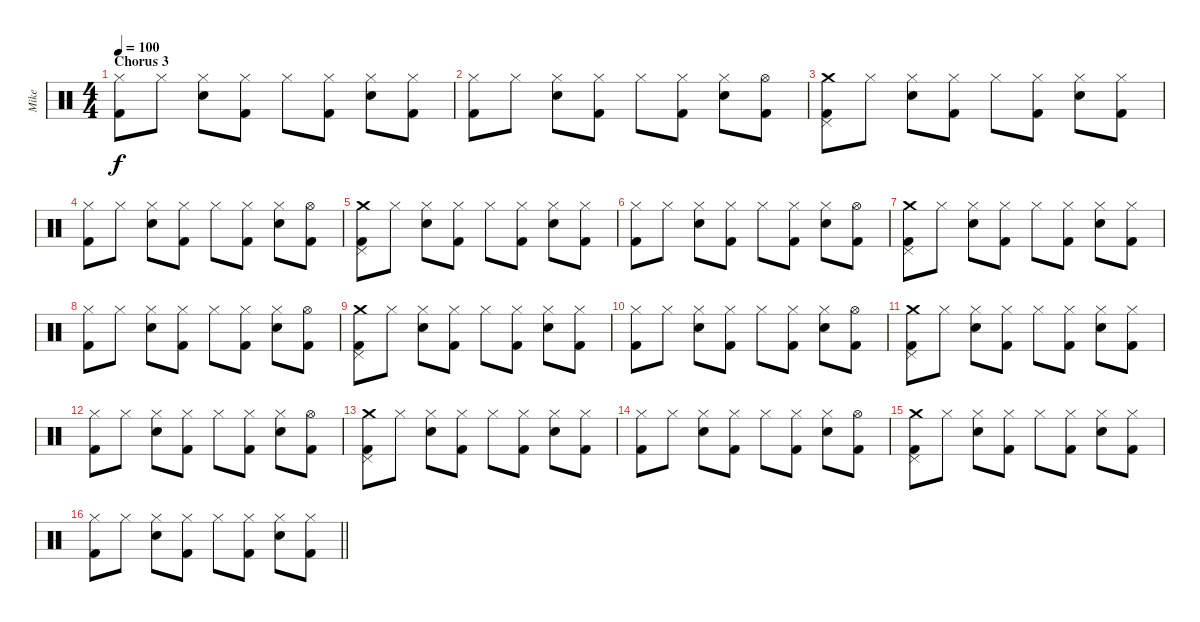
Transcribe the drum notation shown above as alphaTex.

\track ("Mike" "Mike") {instrument percussion}
\staff {score}
\articulation defaults
\ts (4 4)
\section ("" "Chorus 3")
\tempo 100
\clef neutral
\ks c
("Hi-Hat (closed)" "Kick (hit) 2").8{dy f} "Hi-Hat (closed)".8 ("Hi-Hat (closed)" "Electric Snare (hit)").8 ("Hi-Hat (closed)" "Kick (hit) 2").8 "Hi-Hat (closed)".8 ("Hi-Hat (closed)" "Kick (hit) 2").8 ("Hi-Hat (closed)" "Electric Snare (hit)").8 ("Hi-Hat (closed)" "Kick (hit) 2").8 |
("Hi-Hat (closed)" "Kick (hit) 2").8 "Hi-Hat (closed)".8 ("Hi-Hat (closed)" "Electric Snare (hit)").8 ("Hi-Hat (closed)" "Kick (hit) 2").8 "Hi-Hat (closed)".8 ("Hi-Hat (closed)" "Kick (hit) 2").8 ("Hi-Hat (closed)" "Electric Snare (hit)").8 ("Hi-Hat (open)" "Kick (hit) 2").8 |
("Crash medium (hit)" "Pedal Hi-Hat (hit)" "Kick (hit) 2").8 "Hi-Hat (closed)".8 ("Hi-Hat (closed)" "Electric Snare (hit)").8 ("Hi-Hat (closed)" "Kick (hit) 2").8 "Hi-Hat (closed)".8 ("Hi-Hat (closed)" "Kick (hit) 2").8 ("Hi-Hat (closed)" "Electric Snare (hit)").8 ("Hi-Hat (closed)" "Kick (hit) 2").8 |
("Hi-Hat (closed)" "Kick (hit) 2").8 "Hi-Hat (closed)".8 ("Hi-Hat (closed)" "Electric Snare (hit)").8 ("Hi-Hat (closed)" "Kick (hit) 2").8 "Hi-Hat (closed)".8 ("Hi-Hat (closed)" "Kick (hit) 2").8 ("Hi-Hat (closed)" "Electric Snare (hit)").8 ("Hi-Hat (open)" "Kick (hit) 2").8 |
("Crash medium (hit)" "Pedal Hi-Hat (hit)" "Kick (hit) 2").8 "Hi-Hat (closed)".8 ("Hi-Hat (closed)" "Electric Snare (hit)").8 ("Hi-Hat (closed)" "Kick (hit) 2").8 "Hi-Hat (closed)".8 ("Hi-Hat (closed)" "Kick (hit) 2").8 ("Hi-Hat (closed)" "Electric Snare (hit)").8 ("Hi-Hat (closed)" "Kick (hit) 2").8 |
("Hi-Hat (closed)" "Kick (hit) 2").8 "Hi-Hat (closed)".8 ("Hi-Hat (closed)" "Electric Snare (hit)").8 ("Hi-Hat (closed)" "Kick (hit) 2").8 "Hi-Hat (closed)".8 ("Hi-Hat (closed)" "Kick (hit) 2").8 ("Hi-Hat (closed)" "Electric Snare (hit)").8 ("Hi-Hat (open)" "Kick (hit) 2").8 |
("Crash medium (hit)" "Pedal Hi-Hat (hit)" "Kick (hit) 2").8 "Hi-Hat (closed)".8 ("Hi-Hat (closed)" "Electric Snare (hit)").8 ("Hi-Hat (closed)" "Kick (hit) 2").8 "Hi-Hat (closed)".8 ("Hi-Hat (closed)" "Kick (hit) 2").8 ("Hi-Hat (closed)" "Electric Snare (hit)").8 ("Hi-Hat (closed)" "Kick (hit) 2").8 |
("Hi-Hat (closed)" "Kick (hit) 2").8 "Hi-Hat (closed)".8 ("Hi-Hat (closed)" "Electric Snare (hit)").8 ("Hi-Hat (closed)" "Kick (hit) 2").8 "Hi-Hat (closed)".8 ("Hi-Hat (closed)" "Kick (hit) 2").8 ("Hi-Hat (closed)" "Electric Snare (hit)").8 ("Hi-Hat (open)" "Kick (hit) 2").8 |
("Crash medium (hit)" "Pedal Hi-Hat (hit)" "Kick (hit) 2").8 "Hi-Hat (closed)".8 ("Hi-Hat (closed)" "Electric Snare (hit)").8 ("Hi-Hat (closed)" "Kick (hit) 2").8 "Hi-Hat (closed)".8 ("Hi-Hat (closed)" "Kick (hit) 2").8 ("Hi-Hat (closed)" "Electric Snare (hit)").8 ("Hi-Hat (closed)" "Kick (hit) 2").8 |
("Hi-Hat (closed)" "Kick (hit) 2").8 "Hi-Hat (closed)".8 ("Hi-Hat (closed)" "Electric Snare (hit)").8 ("Hi-Hat (closed)" "Kick (hit) 2").8 "Hi-Hat (closed)".8 ("Hi-Hat (closed)" "Kick (hit) 2").8 ("Hi-Hat (closed)" "Electric Snare (hit)").8 ("Hi-Hat (open)" "Kick (hit) 2").8 |
("Crash medium (hit)" "Pedal Hi-Hat (hit)" "Kick (hit) 2").8 "Hi-Hat (closed)".8 ("Hi-Hat (closed)" "Electric Snare (hit)").8 ("Hi-Hat (closed)" "Kick (hit) 2").8 "Hi-Hat (closed)".8 ("Hi-Hat (closed)" "Kick (hit) 2").8 ("Hi-Hat (closed)" "Electric Snare (hit)").8 ("Hi-Hat (closed)" "Kick (hit) 2").8 |
("Hi-Hat (closed)" "Kick (hit) 2").8 "Hi-Hat (closed)".8 ("Hi-Hat (closed)" "Electric Snare (hit)").8 ("Hi-Hat (closed)" "Kick (hit) 2").8 "Hi-Hat (closed)".8 ("Hi-Hat (closed)" "Kick (hit) 2").8 ("Hi-Hat (closed)" "Electric Snare (hit)").8 ("Hi-Hat (open)" "Kick (hit) 2").8 |
("Crash medium (hit)" "Pedal Hi-Hat (hit)" "Kick (hit) 2").8 "Hi-Hat (closed)".8 ("Hi-Hat (closed)" "Electric Snare (hit)").8 ("Hi-Hat (closed)" "Kick (hit) 2").8 "Hi-Hat (closed)".8 ("Hi-Hat (closed)" "Kick (hit) 2").8 ("Hi-Hat (closed)" "Electric Snare (hit)").8 ("Hi-Hat (closed)" "Kick (hit) 2").8 |
("Hi-Hat (closed)" "Kick (hit) 2").8 "Hi-Hat (closed)".8 ("Hi-Hat (closed)" "Electric Snare (hit)").8 ("Hi-Hat (closed)" "Kick (hit) 2").8 "Hi-Hat (closed)".8 ("Hi-Hat (closed)" "Kick (hit) 2").8 ("Hi-Hat (closed)" "Electric Snare (hit)").8 ("Hi-Hat (open)" "Kick (hit) 2").8 |
("Crash medium (hit)" "Pedal Hi-Hat (hit)" "Kick (hit) 2").8 "Hi-Hat (closed)".8 ("Hi-Hat (closed)" "Electric Snare (hit)").8 ("Hi-Hat (closed)" "Kick (hit) 2").8 "Hi-Hat (closed)".8 ("Hi-Hat (closed)" "Kick (hit) 2").8 ("Hi-Hat (closed)" "Electric Snare (hit)").8 ("Hi-Hat (closed)" "Kick (hit) 2").8 |
\barLineRight lightlight
("Hi-Hat (closed)" "Kick (hit) 2").8 "Hi-Hat (closed)".8 ("Hi-Hat (closed)" "Electric Snare (hit)").8 ("Hi-Hat (closed)" "Kick (hit) 2").8 "Hi-Hat (closed)".8 ("Hi-Hat (closed)" "Kick (hit) 2").8 ("Hi-Hat (closed)" "Electric Snare (hit)").8 ("Hi-Hat (closed)" "Kick (hit) 2").8
